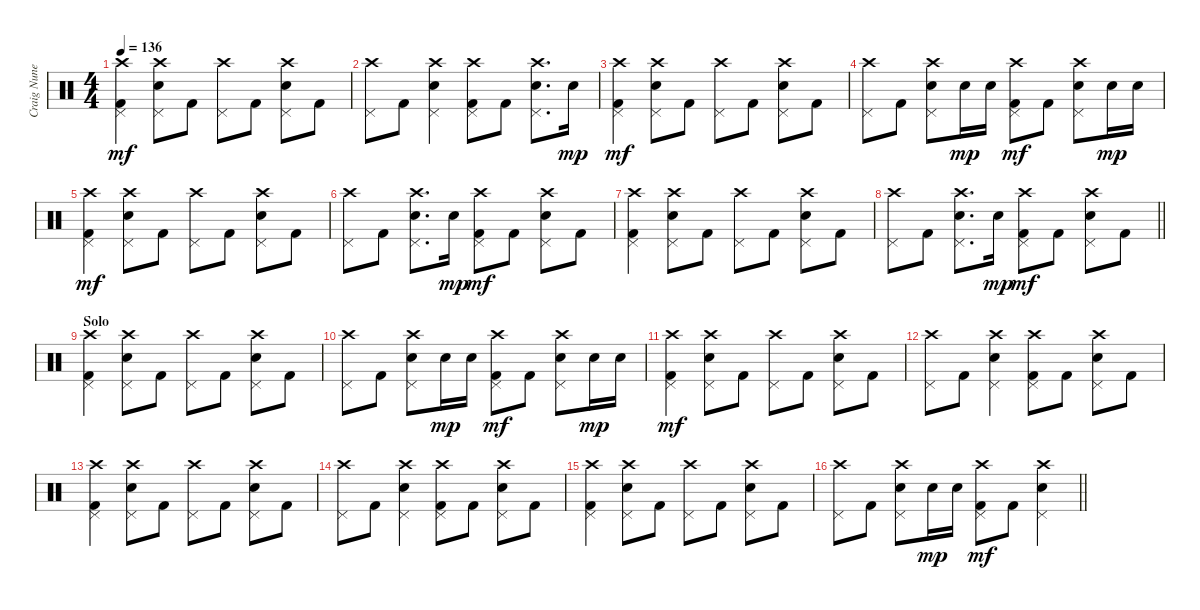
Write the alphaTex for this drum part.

\track ("Craig Nunenmancher" "Craig Nune") {instrument percussion}
\staff {score}
\articulation defaults
\ts (4 4)
\tempo 136
\clef neutral
\ks c
("Crash high (hit)" "Pedal Hi-Hat (hit)" "Kick (hit) 2").4{dy mf} ("Crash high (hit)" "Pedal Hi-Hat (hit)" "Snare (hit) 2").8 "Kick (hit) 2".8 ("Crash high (hit)" "Pedal Hi-Hat (hit)").8 "Kick (hit) 2".8 ("Crash high (hit)" "Pedal Hi-Hat (hit)" "Snare (hit) 2").8 "Kick (hit) 2".8 |
("Crash high (hit)" "Pedal Hi-Hat (hit)").8 "Kick (hit) 2".8 ("Crash high (hit)" "Pedal Hi-Hat (hit)" "Snare (hit) 2").4 ("Crash high (hit)" "Pedal Hi-Hat (hit)" "Kick (hit) 2").8 "Kick (hit) 2".8 ("Crash high (hit)" "Pedal Hi-Hat (hit)" "Snare (hit) 2").8{d} "Snare (hit) 2".16{dy mp} |
("Crash high (hit)" "Pedal Hi-Hat (hit)" "Kick (hit) 2").4{dy mf} ("Crash high (hit)" "Pedal Hi-Hat (hit)" "Snare (hit) 2").8 "Kick (hit) 2".8 ("Crash high (hit)" "Pedal Hi-Hat (hit)").8 "Kick (hit) 2".8 ("Crash high (hit)" "Pedal Hi-Hat (hit)" "Snare (hit) 2").8 "Kick (hit) 2".8 |
("Crash high (hit)" "Pedal Hi-Hat (hit)").8 "Kick (hit) 2".8 ("Crash high (hit)" "Pedal Hi-Hat (hit)" "Snare (hit) 2").8 "Snare (hit) 2".16{dy mp} "Snare (hit) 2".16 ("Crash high (hit)" "Pedal Hi-Hat (hit)" "Kick (hit) 2").8{dy mf} "Kick (hit) 2".8 ("Crash high (hit)" "Pedal Hi-Hat (hit)" "Snare (hit) 2").8 "Snare (hit) 2".16{dy mp} "Snare (hit) 2".16 |
("Crash high (hit)" "Pedal Hi-Hat (hit)" "Kick (hit) 2").4{dy mf} ("Crash high (hit)" "Pedal Hi-Hat (hit)" "Snare (hit) 2").8 "Kick (hit) 2".8 ("Crash high (hit)" "Pedal Hi-Hat (hit)").8 "Kick (hit) 2".8 ("Crash high (hit)" "Pedal Hi-Hat (hit)" "Snare (hit) 2").8 "Kick (hit) 2".8 |
("Crash high (hit)" "Pedal Hi-Hat (hit)").8 "Kick (hit) 2".8 ("Crash high (hit)" "Pedal Hi-Hat (hit)" "Snare (hit) 2").8{d} "Snare (hit) 2".16{dy mp} ("Crash high (hit)" "Pedal Hi-Hat (hit)" "Kick (hit) 2").8{dy mf} "Kick (hit) 2".8 ("Crash high (hit)" "Pedal Hi-Hat (hit)" "Snare (hit) 2").8 "Kick (hit) 2".8 |
("Crash high (hit)" "Pedal Hi-Hat (hit)" "Kick (hit) 2").4 ("Crash high (hit)" "Pedal Hi-Hat (hit)" "Snare (hit) 2").8 "Kick (hit) 2".8 ("Crash high (hit)" "Pedal Hi-Hat (hit)").8 "Kick (hit) 2".8 ("Crash high (hit)" "Pedal Hi-Hat (hit)" "Snare (hit) 2").8 "Kick (hit) 2".8 |
\barLineRight lightlight
("Crash high (hit)" "Pedal Hi-Hat (hit)").8 "Kick (hit) 2".8 ("Crash high (hit)" "Pedal Hi-Hat (hit)" "Snare (hit) 2").8{d} "Snare (hit) 2".16{dy mp} ("Crash high (hit)" "Pedal Hi-Hat (hit)" "Kick (hit) 2").8{dy mf} "Kick (hit) 2".8 ("Crash high (hit)" "Pedal Hi-Hat (hit)" "Snare (hit) 2").8 "Kick (hit) 2".8 |
\section ("" "Solo")
("Crash high (hit)" "Pedal Hi-Hat (hit)" "Kick (hit) 2").4 ("Crash high (hit)" "Pedal Hi-Hat (hit)" "Snare (hit) 2").8 "Kick (hit) 2".8 ("Crash high (hit)" "Pedal Hi-Hat (hit)").8 "Kick (hit) 2".8 ("Crash high (hit)" "Pedal Hi-Hat (hit)" "Snare (hit) 2").8 "Kick (hit) 2".8 |
("Crash high (hit)" "Pedal Hi-Hat (hit)").8 "Kick (hit) 2".8 ("Crash high (hit)" "Pedal Hi-Hat (hit)" "Snare (hit) 2").8 "Snare (hit) 2".16{dy mp} "Snare (hit) 2".16 ("Crash high (hit)" "Pedal Hi-Hat (hit)" "Kick (hit) 2").8{dy mf} "Kick (hit) 2".8 ("Crash high (hit)" "Pedal Hi-Hat (hit)" "Snare (hit) 2").8 "Snare (hit) 2".16{dy mp} "Snare (hit) 2".16 |
("Crash high (hit)" "Pedal Hi-Hat (hit)" "Kick (hit) 2").4{dy mf} ("Crash high (hit)" "Pedal Hi-Hat (hit)" "Snare (hit) 2").8 "Kick (hit) 2".8 ("Crash high (hit)" "Pedal Hi-Hat (hit)").8 "Kick (hit) 2".8 ("Crash high (hit)" "Pedal Hi-Hat (hit)" "Snare (hit) 2").8 "Kick (hit) 2".8 |
("Crash high (hit)" "Pedal Hi-Hat (hit)").8 "Kick (hit) 2".8 ("Crash high (hit)" "Pedal Hi-Hat (hit)" "Snare (hit) 2").4 ("Crash high (hit)" "Pedal Hi-Hat (hit)" "Kick (hit) 2").8 "Kick (hit) 2".8 ("Crash high (hit)" "Pedal Hi-Hat (hit)" "Snare (hit) 2").8 "Kick (hit) 2".8 |
("Crash high (hit)" "Pedal Hi-Hat (hit)" "Kick (hit) 2").4 ("Crash high (hit)" "Pedal Hi-Hat (hit)" "Snare (hit) 2").8 "Kick (hit) 2".8 ("Crash high (hit)" "Pedal Hi-Hat (hit)").8 "Kick (hit) 2".8 ("Crash high (hit)" "Pedal Hi-Hat (hit)" "Snare (hit) 2").8 "Kick (hit) 2".8 |
("Crash high (hit)" "Pedal Hi-Hat (hit)").8 "Kick (hit) 2".8 ("Crash high (hit)" "Pedal Hi-Hat (hit)" "Snare (hit) 2").4 ("Crash high (hit)" "Pedal Hi-Hat (hit)" "Kick (hit) 2").8 "Kick (hit) 2".8 ("Crash high (hit)" "Pedal Hi-Hat (hit)" "Snare (hit) 2").8 "Kick (hit) 2".8 |
("Crash high (hit)" "Pedal Hi-Hat (hit)" "Kick (hit) 2").4 ("Crash high (hit)" "Pedal Hi-Hat (hit)" "Snare (hit) 2").8 "Kick (hit) 2".8 ("Crash high (hit)" "Pedal Hi-Hat (hit)").8 "Kick (hit) 2".8 ("Crash high (hit)" "Pedal Hi-Hat (hit)" "Snare (hit) 2").8 "Kick (hit) 2".8 |
\barLineRight lightlight
("Crash high (hit)" "Pedal Hi-Hat (hit)").8 "Kick (hit) 2".8 ("Crash high (hit)" "Pedal Hi-Hat (hit)" "Snare (hit) 2").8 "Snare (hit) 2".16{dy mp} "Snare (hit) 2".16 ("Crash high (hit)" "Pedal Hi-Hat (hit)" "Kick (hit) 2").8{dy mf} "Kick (hit) 2".8 ("Crash high (hit)" "Pedal Hi-Hat (hit)" "Snare (hit) 2").4
